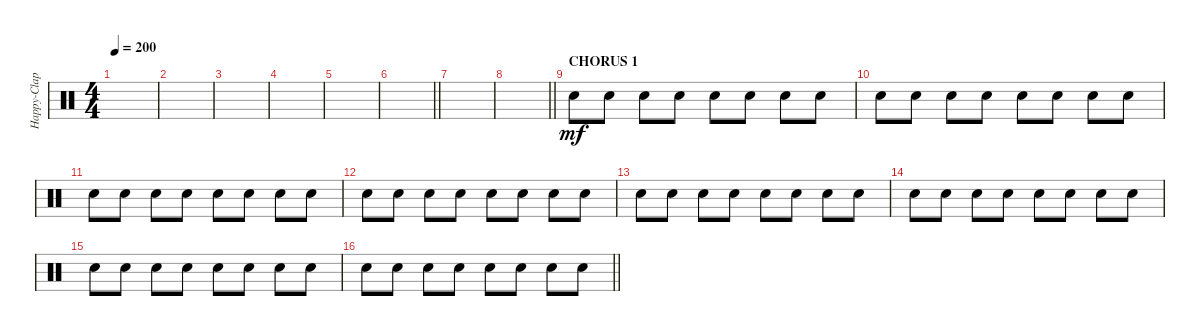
\track ("Happy-Clappy" "Happy-Clap") {instrument percussion}
\staff {score}
\articulation defaults
\ts (4 4)
\tempo 200
\clef neutral
\ks c
|
|
|
|
|
\barLineRight lightlight
|
|
\barLineRight lightlight
|
\section ("" "CHORUS 1")
"Hand Clap (hit)".8{dy mf} "Hand Clap (hit)".8 "Hand Clap (hit)".8 "Hand Clap (hit)".8 "Hand Clap (hit)".8 "Hand Clap (hit)".8 "Hand Clap (hit)".8 "Hand Clap (hit)".8 |
"Hand Clap (hit)".8 "Hand Clap (hit)".8 "Hand Clap (hit)".8 "Hand Clap (hit)".8 "Hand Clap (hit)".8 "Hand Clap (hit)".8 "Hand Clap (hit)".8 "Hand Clap (hit)".8 |
"Hand Clap (hit)".8 "Hand Clap (hit)".8 "Hand Clap (hit)".8 "Hand Clap (hit)".8 "Hand Clap (hit)".8 "Hand Clap (hit)".8 "Hand Clap (hit)".8 "Hand Clap (hit)".8 |
"Hand Clap (hit)".8 "Hand Clap (hit)".8 "Hand Clap (hit)".8 "Hand Clap (hit)".8 "Hand Clap (hit)".8 "Hand Clap (hit)".8 "Hand Clap (hit)".8 "Hand Clap (hit)".8 |
"Hand Clap (hit)".8 "Hand Clap (hit)".8 "Hand Clap (hit)".8 "Hand Clap (hit)".8 "Hand Clap (hit)".8 "Hand Clap (hit)".8 "Hand Clap (hit)".8 "Hand Clap (hit)".8 |
"Hand Clap (hit)".8 "Hand Clap (hit)".8 "Hand Clap (hit)".8 "Hand Clap (hit)".8 "Hand Clap (hit)".8 "Hand Clap (hit)".8 "Hand Clap (hit)".8 "Hand Clap (hit)".8 |
"Hand Clap (hit)".8 "Hand Clap (hit)".8 "Hand Clap (hit)".8 "Hand Clap (hit)".8 "Hand Clap (hit)".8 "Hand Clap (hit)".8 "Hand Clap (hit)".8 "Hand Clap (hit)".8 |
\barLineRight lightlight "Hand Clap (hit)".8 "Hand Clap (hit)".8 "Hand Clap (hit)".8 "Hand Clap (hit)".8 "Hand Clap (hit)".8 "Hand Clap (hit)".8 "Hand Clap (hit)".8 "Hand Clap (hit)".8
